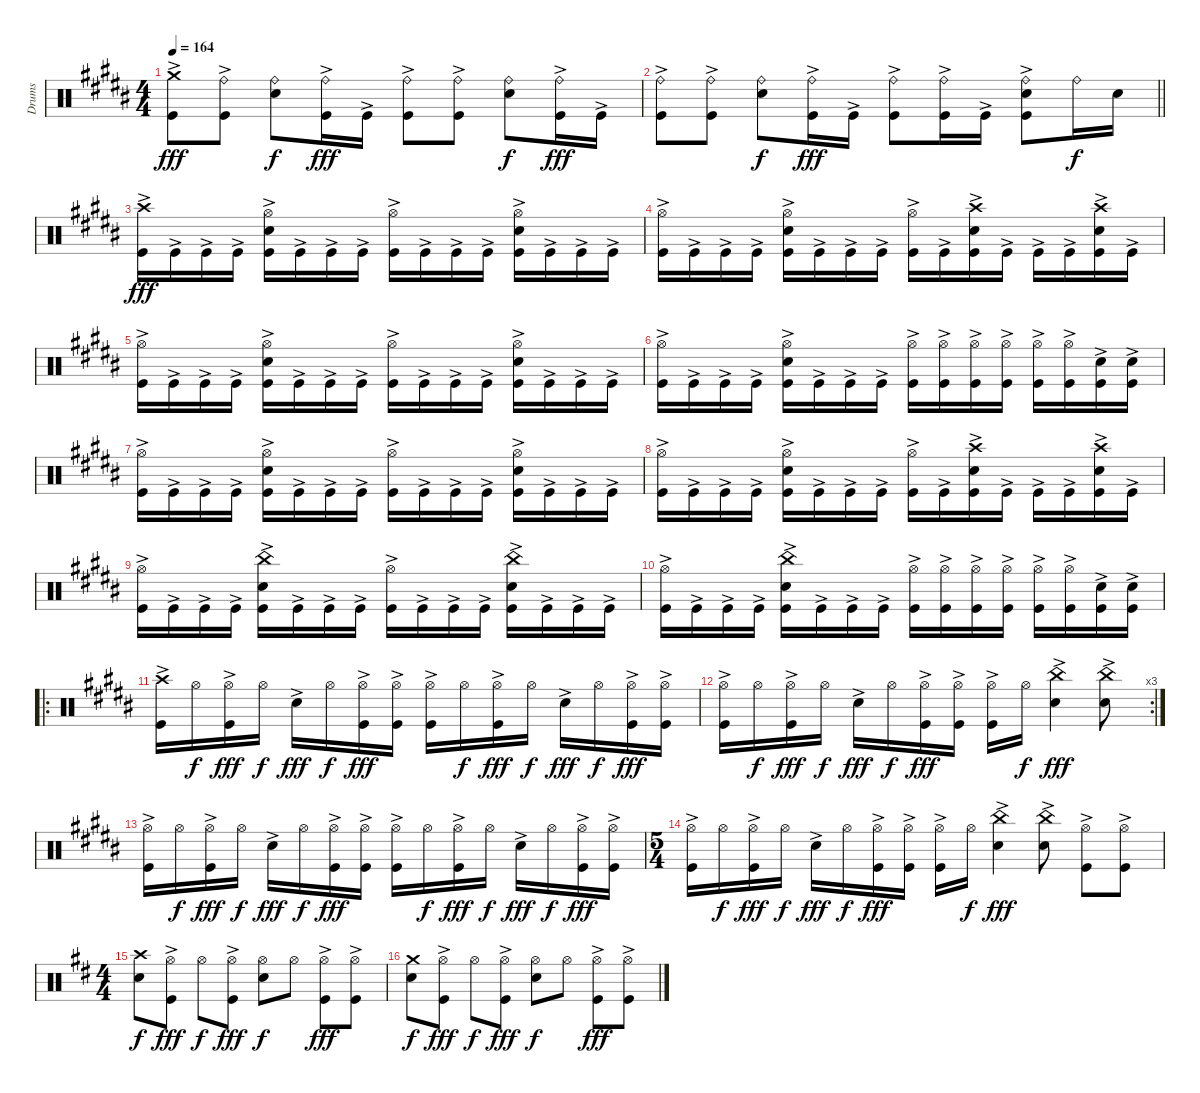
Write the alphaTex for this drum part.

\track ("Drums" "Drums") {instrument percussion}
\staff {score}
\articulation defaults
\ts (4 4)
\tempo 164
\clef neutral
\ks g#minor
("Crash medium (hit)" "Kick (hit)"{ac}).8{dy fff} ("Ride (bell)" "Kick (hit)"{ac}).8 ("Ride (bell)" "Snare (hit) 2").8{dy f} ("Ride (bell)" "Kick (hit)"{ac}).16{dy fff} "Kick (hit)"{ac}.16 ("Ride (bell)" "Kick (hit)"{ac}).8 ("Ride (bell)" "Kick (hit)"{ac}).8 ("Ride (bell)" "Snare (hit) 2").8{dy f} ("Ride (bell)" "Kick (hit)"{ac}).16{dy fff} "Kick (hit)"{ac}.16 |
\barLineRight lightlight
("Ride (bell)" "Kick (hit)"{ac}).8 ("Ride (bell)" "Kick (hit)"{ac}).8 ("Ride (bell)" "Snare (hit) 2").8{dy f} ("Ride (bell)" "Kick (hit)"{ac}).16{dy fff} "Kick (hit)"{ac}.16 ("Ride (bell)" "Kick (hit)"{ac}).8 ("Ride (bell)" "Kick (hit)"{ac}).16 "Kick (hit)"{ac}.16 ("Ride (bell)" "Snare (hit) 2" "Kick (hit)"{ac}).8 "Ride (bell)".16{dy f} "Snare (hit) 2".16 |
("Crash high (hit)" "Kick (hit)"{ac}).16{dy fff} "Kick (hit)"{ac}.16 "Kick (hit)"{ac}.16 "Kick (hit)"{ac}.16 ("Hi-Hat (open)" "Snare (hit) 2" "Kick (hit)"{ac}).16 "Kick (hit)"{ac}.16 "Kick (hit)"{ac}.16 "Kick (hit)"{ac}.16 ("Hi-Hat (open)" "Kick (hit)"{ac}).16 "Kick (hit)"{ac}.16 "Kick (hit)"{ac}.16 "Kick (hit)"{ac}.16 ("Hi-Hat (open)" "Snare (hit) 2" "Kick (hit)"{ac}).16 "Kick (hit)"{ac}.16 "Kick (hit)"{ac}.16 "Kick (hit)"{ac}.16 |
("Hi-Hat (open)" "Kick (hit)"{ac}).16 "Kick (hit)"{ac}.16 "Kick (hit)"{ac}.16 "Kick (hit)"{ac}.16 ("Hi-Hat (open)" "Snare (hit) 2" "Kick (hit)"{ac}).16 "Kick (hit)"{ac}.16 "Kick (hit)"{ac}.16 "Kick (hit)"{ac}.16 ("Hi-Hat (open)" "Kick (hit)"{ac}).16 "Kick (hit)"{ac}.16 ("Crash high (hit)" "Snare (hit) 2" "Kick (hit)"{ac}).16 "Kick (hit)"{ac}.16 "Kick (hit)"{ac}.16 "Kick (hit)"{ac}.16 ("Crash high (hit)" "Snare (hit) 2" "Kick (hit)"{ac}).16 "Kick (hit)"{ac}.16 |
("Hi-Hat (open)" "Kick (hit)"{ac}).16 "Kick (hit)"{ac}.16 "Kick (hit)"{ac}.16 "Kick (hit)"{ac}.16 ("Hi-Hat (open)" "Snare (hit) 2" "Kick (hit)"{ac}).16 "Kick (hit)"{ac}.16 "Kick (hit)"{ac}.16 "Kick (hit)"{ac}.16 ("Hi-Hat (open)" "Kick (hit)"{ac}).16 "Kick (hit)"{ac}.16 "Kick (hit)"{ac}.16 "Kick (hit)"{ac}.16 ("Hi-Hat (open)" "Snare (hit) 2" "Kick (hit)"{ac}).16 "Kick (hit)"{ac}.16 "Kick (hit)"{ac}.16 "Kick (hit)"{ac}.16 |
("Hi-Hat (open)" "Kick (hit)"{ac}).16 "Kick (hit)"{ac}.16 "Kick (hit)"{ac}.16 "Kick (hit)"{ac}.16 ("Hi-Hat (open)" "Snare (hit) 2" "Kick (hit)"{ac}).16 "Kick (hit)"{ac}.16 "Kick (hit)"{ac}.16 "Kick (hit)"{ac}.16 ("Hi-Hat (open)" "Kick (hit)"{ac}).16 ("Hi-Hat (open)" "Kick (hit)"{ac}).16 ("Hi-Hat (open)" "Kick (hit)"{ac}).16 ("Hi-Hat (open)" "Kick (hit)"{ac}).16 ("Hi-Hat (open)" "Kick (hit)"{ac}).16 ("Hi-Hat (open)" "Kick (hit)"{ac}).16 ("Snare (hit) 2"{ac} "Kick (hit)"{ac}).16 ("Snare (hit) 2"{ac} "Kick (hit)"{ac}).16 |
("Hi-Hat (open)" "Kick (hit)"{ac}).16 "Kick (hit)"{ac}.16 "Kick (hit)"{ac}.16 "Kick (hit)"{ac}.16 ("Hi-Hat (open)" "Snare (hit) 2" "Kick (hit)"{ac}).16 "Kick (hit)"{ac}.16 "Kick (hit)"{ac}.16 "Kick (hit)"{ac}.16 ("Hi-Hat (open)" "Kick (hit)"{ac}).16 "Kick (hit)"{ac}.16 "Kick (hit)"{ac}.16 "Kick (hit)"{ac}.16 ("Hi-Hat (open)" "Snare (hit) 2" "Kick (hit)"{ac}).16 "Kick (hit)"{ac}.16 "Kick (hit)"{ac}.16 "Kick (hit)"{ac}.16 |
("Hi-Hat (open)" "Kick (hit)"{ac}).16 "Kick (hit)"{ac}.16 "Kick (hit)"{ac}.16 "Kick (hit)"{ac}.16 ("Hi-Hat (open)" "Snare (hit) 2" "Kick (hit)"{ac}).16 "Kick (hit)"{ac}.16 "Kick (hit)"{ac}.16 "Kick (hit)"{ac}.16 ("Hi-Hat (open)" "Kick (hit)"{ac}).16 "Kick (hit)"{ac}.16 ("Crash high (hit)" "Snare (hit) 2" "Kick (hit)"{ac}).16 "Kick (hit)"{ac}.16 "Kick (hit)"{ac}.16 "Kick (hit)"{ac}.16 ("Crash high (hit)" "Snare (hit) 2" "Kick (hit)"{ac}).16 "Kick (hit)"{ac}.16 |
("Hi-Hat (open)" "Kick (hit)"{ac}).16 "Kick (hit)"{ac}.16 "Kick (hit)"{ac}.16 "Kick (hit)"{ac}.16 ("China (hit)" "Snare (hit) 2" "Kick (hit)"{ac}).16 "Kick (hit)"{ac}.16 "Kick (hit)"{ac}.16 "Kick (hit)"{ac}.16 ("Hi-Hat (open)" "Kick (hit)"{ac}).16 "Kick (hit)"{ac}.16 "Kick (hit)"{ac}.16 "Kick (hit)"{ac}.16 ("China (hit)" "Snare (hit) 2" "Kick (hit)"{ac}).16 "Kick (hit)"{ac}.16 "Kick (hit)"{ac}.16 "Kick (hit)"{ac}.16 |
("Hi-Hat (open)" "Kick (hit)"{ac}).16 "Kick (hit)"{ac}.16 "Kick (hit)"{ac}.16 "Kick (hit)"{ac}.16 ("China (hit)" "Snare (hit) 2" "Kick (hit)"{ac}).16 "Kick (hit)"{ac}.16 "Kick (hit)"{ac}.16 "Kick (hit)"{ac}.16 ("Hi-Hat (open)" "Kick (hit)"{ac}).16 ("Hi-Hat (open)" "Kick (hit)"{ac}).16 ("Hi-Hat (open)" "Kick (hit)"{ac}).16 ("Hi-Hat (open)" "Kick (hit)"{ac}).16 ("Hi-Hat (open)" "Kick (hit)"{ac}).16 ("Hi-Hat (open)" "Kick (hit)"{ac}).16 ("Snare (hit) 2"{ac} "Kick (hit)"{ac}).16 ("Snare (hit) 2"{ac} "Kick (hit)"{ac}).16 |
\ro
("Crash high (hit)" "Kick (hit)"{ac}).16 "Hi-Hat (open)".16{dy f} ("Hi-Hat (open)" "Kick (hit)"{ac}).16{dy fff} "Hi-Hat (open)".16{dy f} "Snare (hit) 2"{ac}.16{dy fff} "Hi-Hat (open)".16{dy f} ("Hi-Hat (open)" "Kick (hit)"{ac}).16{dy fff} ("Hi-Hat (open)" "Kick (hit)"{ac}).16 ("Hi-Hat (open)" "Kick (hit)"{ac}).16 "Hi-Hat (open)".16{dy f} ("Hi-Hat (open)" "Kick (hit)"{ac}).16{dy fff} "Hi-Hat (open)".16{dy f} "Snare (hit) 2"{ac}.16{dy fff} "Hi-Hat (open)".16{dy f} ("Hi-Hat (open)" "Kick (hit)"{ac}).16{dy fff} ("Hi-Hat (open)" "Kick (hit)"{ac}).16 |
\rc 3
("Hi-Hat (open)" "Kick (hit)"{ac}).16 "Hi-Hat (open)".16{dy f} ("Hi-Hat (open)" "Kick (hit)"{ac}).16{dy fff} "Hi-Hat (open)".16{dy f} "Snare (hit) 2"{ac}.16{dy fff} "Hi-Hat (open)".16{dy f} ("Hi-Hat (open)" "Kick (hit)"{ac}).16{dy fff} ("Hi-Hat (open)" "Kick (hit)"{ac}).16 ("Hi-Hat (open)" "Kick (hit)"{ac}).16 "Hi-Hat (open)".16{dy f} ("China (hit)"{ac} "Snare (hit) 2"{ac}).4{dy fff} ("China (hit)"{ac} "Snare (hit) 2"{ac}).8 |
("Hi-Hat (open)" "Kick (hit)"{ac}).16 "Hi-Hat (open)".16{dy f} ("Hi-Hat (open)" "Kick (hit)"{ac}).16{dy fff} "Hi-Hat (open)".16{dy f} "Snare (hit) 2"{ac}.16{dy fff} "Hi-Hat (open)".16{dy f} ("Hi-Hat (open)" "Kick (hit)"{ac}).16{dy fff} ("Hi-Hat (open)" "Kick (hit)"{ac}).16 ("Hi-Hat (open)" "Kick (hit)"{ac}).16 "Hi-Hat (open)".16{dy f} ("Hi-Hat (open)" "Kick (hit)"{ac}).16{dy fff} "Hi-Hat (open)".16{dy f} "Snare (hit) 2"{ac}.16{dy fff} "Hi-Hat (open)".16{dy f} ("Hi-Hat (open)" "Kick (hit)"{ac}).16{dy fff} ("Hi-Hat (open)" "Kick (hit)"{ac}).16 |
\ts (5 4)
("Hi-Hat (open)" "Kick (hit)"{ac}).16 "Hi-Hat (open)".16{dy f} ("Hi-Hat (open)" "Kick (hit)"{ac}).16{dy fff} "Hi-Hat (open)".16{dy f} "Snare (hit) 2"{ac}.16{dy fff} "Hi-Hat (open)".16{dy f} ("Hi-Hat (open)" "Kick (hit)"{ac}).16{dy fff} ("Hi-Hat (open)" "Kick (hit)"{ac}).16 ("Hi-Hat (open)" "Kick (hit)"{ac}).16 "Hi-Hat (open)".16{dy f} ("China (hit)"{ac} "Snare (hit) 2"{ac}).4{dy fff} ("China (hit)"{ac} "Snare (hit) 2"{ac}).8 ("Hi-Hat (open)" "Kick (hit)"{ac}).8 ("Hi-Hat (open)" "Kick (hit)"{ac}).8 |
\ts (4 4)
\ks bminor
("Crash high (hit)" "Snare (hit) 2").8{dy f} ("Hi-Hat (open)" "Kick (hit)"{ac}).8{dy fff} "Hi-Hat (open)".8{dy f} ("Hi-Hat (open)" "Kick (hit)"{ac}).8{dy fff} ("Hi-Hat (open)" "Snare (hit) 2").8{dy f} "Hi-Hat (open)".8 ("Hi-Hat (open)" "Kick (hit)"{ac}).8{dy fff} ("Hi-Hat (open)" "Kick (hit)"{ac}).8 |
("Crash medium (hit)" "Snare (hit) 2").8{dy f} ("Hi-Hat (open)" "Kick (hit)"{ac}).8{dy fff} "Hi-Hat (open)".8{dy f} ("Hi-Hat (open)" "Kick (hit)"{ac}).8{dy fff} ("Hi-Hat (open)" "Snare (hit) 2").8{dy f} "Hi-Hat (open)".8 ("Hi-Hat (open)" "Kick (hit)"{ac}).8{dy fff} ("Hi-Hat (open)" "Kick (hit)"{ac}).8
